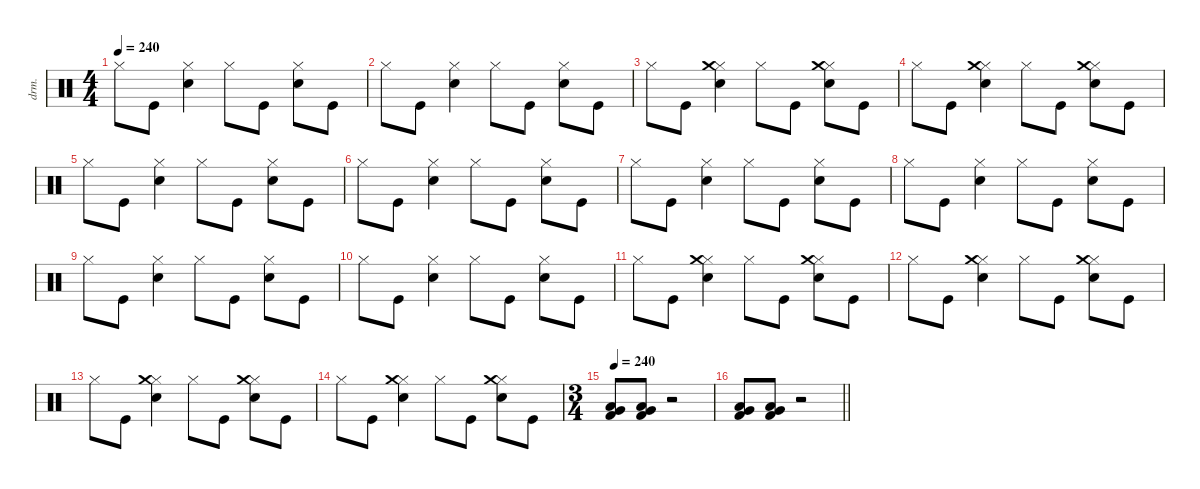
\defaultSystemsLayout 4
\hideDynamics
\bracketExtendMode nobrackets
\track ("dany" "drm.") {instrument percussion}
\staff {score}
\articulation defaults
\ts (4 4)
\tempo 240
\clef neutral
\ks c "Hi-Hat (closed)".8{dy f beam Down} "Kick (hit)".8{beam Down}
("Snare (hit) 2" "Hi-Hat (closed)").4{beam Down} "Hi-Hat (closed)".8{beam Down} "Kick (hit)".8{beam Down} ("Snare (hit) 2" "Hi-Hat (closed)").8{beam Down} "Kick (hit)".8{beam Down} |
"Hi-Hat (closed)".8{beam Down} "Kick (hit)".8{beam Down} ("Snare (hit) 2" "Hi-Hat (closed)").4{beam Down} "Hi-Hat (closed)".8{beam Down} "Kick (hit)".8{beam Down} ("Snare (hit) 2" "Hi-Hat (closed)").8{beam Down} "Kick (hit)".8{beam Down} |
"Hi-Hat (closed)".8{beam Down} "Kick (hit)".8{beam Down} ("Snare (hit) 2" "Hi-Hat (closed)" "Crash medium (hit)").4{beam Down} "Hi-Hat (closed)".8{beam Down} "Kick (hit)".8{beam Down} ("Snare (hit) 2" "Hi-Hat (closed)" "Crash medium (hit)").8{beam Down} "Kick (hit)".8{beam Down} |
"Hi-Hat (closed)".8{beam Down} "Kick (hit)".8{beam Down} ("Snare (hit) 2" "Hi-Hat (closed)" "Crash medium (hit)").4{beam Down} "Hi-Hat (closed)".8{beam Down} "Kick (hit)".8{beam Down} ("Snare (hit) 2" "Hi-Hat (closed)" "Crash medium (hit)").8{beam Down} "Kick (hit)".8{beam Down} |
"Hi-Hat (closed)".8{beam Down} "Kick (hit)".8{beam Down} ("Snare (hit) 2" "Hi-Hat (closed)").4{beam Down} "Hi-Hat (closed)".8{beam Down} "Kick (hit)".8{beam Down} ("Snare (hit) 2" "Hi-Hat (closed)").8{beam Down} "Kick (hit)".8{beam Down} |
"Hi-Hat (closed)".8{beam Down} "Kick (hit)".8{beam Down} ("Snare (hit) 2" "Hi-Hat (closed)").4{beam Down} "Hi-Hat (closed)".8{beam Down} "Kick (hit)".8{beam Down} ("Snare (hit) 2" "Hi-Hat (closed)").8{beam Down} "Kick (hit)".8{beam Down} |
"Hi-Hat (closed)".8{beam Down} "Kick (hit)".8{beam Down} ("Snare (hit) 2" "Hi-Hat (closed)").4{beam Down} "Hi-Hat (closed)".8{beam Down} "Kick (hit)".8{beam Down} ("Snare (hit) 2" "Hi-Hat (closed)").8{beam Down} "Kick (hit)".8{beam Down} |
"Hi-Hat (closed)".8{beam Down} "Kick (hit)".8{beam Down} ("Snare (hit) 2" "Hi-Hat (closed)").4{beam Down} "Hi-Hat (closed)".8{beam Down} "Kick (hit)".8{beam Down} ("Snare (hit) 2" "Hi-Hat (closed)").8{beam Down} "Kick (hit)".8{beam Down} |
"Hi-Hat (closed)".8{beam Down} "Kick (hit)".8{beam Down} ("Snare (hit) 2" "Hi-Hat (closed)").4{beam Down} "Hi-Hat (closed)".8{beam Down} "Kick (hit)".8{beam Down} ("Snare (hit) 2" "Hi-Hat (closed)").8{beam Down} "Kick (hit)".8{beam Down} |
"Hi-Hat (closed)".8{beam Down} "Kick (hit)".8{beam Down} ("Snare (hit) 2" "Hi-Hat (closed)").4{beam Down} "Hi-Hat (closed)".8{beam Down} "Kick (hit)".8{beam Down} ("Snare (hit) 2" "Hi-Hat (closed)").8{beam Down} "Kick (hit)".8{beam Down} |
"Hi-Hat (closed)".8{beam Down} "Kick (hit)".8{beam Down} ("Snare (hit) 2" "Hi-Hat (closed)" "Crash medium (hit)").4{beam Down} "Hi-Hat (closed)".8{beam Down} "Kick (hit)".8{beam Down} ("Snare (hit) 2" "Hi-Hat (closed)" "Crash medium (hit)").8{beam Down} "Kick (hit)".8{beam Down} |
"Hi-Hat (closed)".8{beam Down} "Kick (hit)".8{beam Down} ("Snare (hit) 2" "Hi-Hat (closed)" "Crash medium (hit)").4{beam Down} "Hi-Hat (closed)".8{beam Down} "Kick (hit)".8{beam Down} ("Snare (hit) 2" "Hi-Hat (closed)" "Crash medium (hit)").8{beam Down} "Kick (hit)".8{beam Down} |
"Hi-Hat (closed)".8{beam Down} "Kick (hit)".8{beam Down} ("Snare (hit) 2" "Hi-Hat (closed)" "Crash medium (hit)").4{beam Down} "Hi-Hat (closed)".8{beam Down} "Kick (hit)".8{beam Down} ("Snare (hit) 2" "Hi-Hat (closed)" "Crash medium (hit)").8{beam Down} "Kick (hit)".8{beam Down} |
"Hi-Hat (closed)".8{beam Down} "Kick (hit)".8{beam Down} ("Snare (hit) 2" "Hi-Hat (closed)" "Crash medium (hit)").4{beam Down} "Hi-Hat (closed)".8{beam Down} "Kick (hit)".8{beam Down} ("Snare (hit) 2" "Hi-Hat (closed)" "Crash medium (hit)").8{beam Down} "Kick (hit)".8{beam Down} |
\ts (3 4)
\beaming (8 2 2 2)
\tempo 240
("Kick (hit) 2" "Low Tom (hit)" "Very Low Tom (hit)").8{beam Up} ("Kick (hit) 2" "Low Tom (hit)" "Very Low Tom (hit)").8{beam Up} r.2{beam Down} |
\barLineRight lightlight
("Kick (hit) 2" "Low Tom (hit)" "Very Low Tom (hit)").8{beam Up} ("Kick (hit) 2" "Low Tom (hit)" "Very Low Tom (hit)").8{beam Up} r.2{beam Down}
